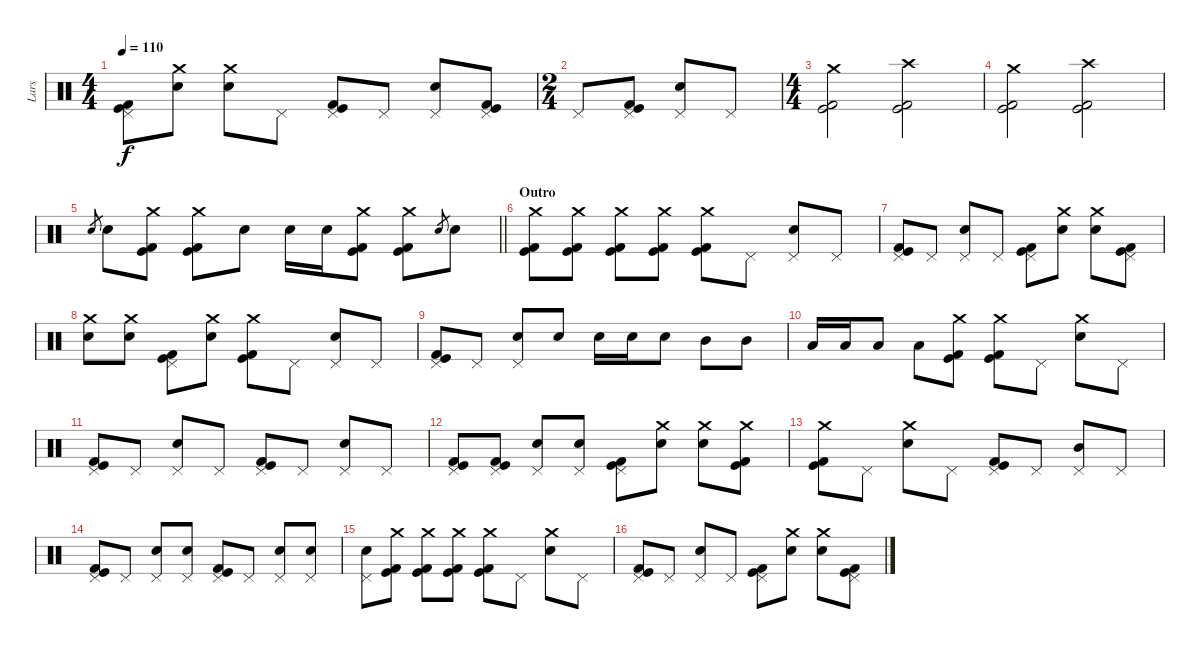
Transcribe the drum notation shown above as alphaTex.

\track ("Lars" "Lars") {instrument percussion}
\staff {score}
\articulation defaults
\ts (4 4)
\tempo 110
\clef neutral
\ks c
("Pedal Hi-Hat (hit)" "Kick (hit)" "Kick (hit) 2").8{dy f} ("Crash medium (hit)" "Electric Snare (hit)").8 ("Crash medium (hit)" "Electric Snare (hit)").8 "Pedal Hi-Hat (hit)".8 ("Pedal Hi-Hat (hit)" "Kick (hit)" "Kick (hit) 2").8 "Pedal Hi-Hat (hit)".8 ("Pedal Hi-Hat (hit)" "Electric Snare (hit)").8 ("Pedal Hi-Hat (hit)" "Kick (hit)" "Kick (hit) 2").8 |
\ts (2 4)
"Pedal Hi-Hat (hit)".8 ("Pedal Hi-Hat (hit)" "Kick (hit)" "Kick (hit) 2").8 ("Pedal Hi-Hat (hit)" "Electric Snare (hit)").8 "Pedal Hi-Hat (hit)".8 |
\ts (4 4)
("Crash medium (hit)" "Kick (hit)" "Kick (hit) 2").2 ("Crash high (hit)" "Kick (hit)" "Kick (hit) 2").2 |
("Crash medium (hit)" "Kick (hit)" "Kick (hit) 2").2 ("Crash high (hit)" "Kick (hit)" "Kick (hit) 2").2 |
\barLineRight lightlight "Electric Snare (hit)".8{gr} "Electric Snare (hit)".8
("Crash medium (hit)" "Kick (hit)" "Kick (hit) 2").8 ("Crash medium (hit)" "Kick (hit)" "Kick (hit) 2").8 "Electric Snare (hit)".8 "Electric Snare (hit)".16 "Electric Snare (hit)".16 ("Crash medium (hit)" "Kick (hit)" "Kick (hit) 2").8 ("Crash medium (hit)" "Kick (hit)" "Kick (hit) 2").8 "Electric Snare (hit)".8{gr} "Electric Snare (hit)".8 |
\section ("" "Outro")
("Crash medium (hit)" "Kick (hit)" "Kick (hit) 2").8 ("Crash medium (hit)" "Kick (hit)" "Kick (hit) 2").8 ("Crash medium (hit)" "Kick (hit)" "Kick (hit) 2").8 ("Crash medium (hit)" "Kick (hit)" "Kick (hit) 2").8 ("Crash medium (hit)" "Kick (hit)" "Kick (hit) 2").8 "Pedal Hi-Hat (hit)".8 ("Pedal Hi-Hat (hit)" "Electric Snare (hit)").8 "Pedal Hi-Hat (hit)".8 |
("Pedal Hi-Hat (hit)" "Kick (hit)" "Kick (hit) 2").8 "Pedal Hi-Hat (hit)".8 ("Pedal Hi-Hat (hit)" "Electric Snare (hit)").8 "Pedal Hi-Hat (hit)".8 ("Pedal Hi-Hat (hit)" "Kick (hit)" "Kick (hit) 2").8 ("Crash medium (hit)" "Electric Snare (hit)").8 ("Crash medium (hit)" "Electric Snare (hit)").8 ("Pedal Hi-Hat (hit)" "Kick (hit)" "Kick (hit) 2").8 |
("Crash medium (hit)" "Electric Snare (hit)").8 ("Crash medium (hit)" "Electric Snare (hit)").8 ("Pedal Hi-Hat (hit)" "Kick (hit)" "Kick (hit) 2").8 ("Crash medium (hit)" "Electric Snare (hit)").8 ("Crash medium (hit)" "Kick (hit)" "Kick (hit) 2").8 "Pedal Hi-Hat (hit)".8 ("Pedal Hi-Hat (hit)" "Electric Snare (hit)").8 "Pedal Hi-Hat (hit)".8 |
("Pedal Hi-Hat (hit)" "Kick (hit)" "Kick (hit) 2").8 "Pedal Hi-Hat (hit)".8 ("Pedal Hi-Hat (hit)" "Electric Snare (hit)").8 "Electric Snare (hit)".8 "Electric Snare (hit)".16 "Electric Snare (hit)".16 "Electric Snare (hit)".8 "Mid Tom (hit)".8 "Mid Tom (hit)".8 |
"Low Tom (hit)".16 "Low Tom (hit)".16 "Low Tom (hit)".8 "Low Tom (hit)".8 ("Crash medium (hit)" "Kick (hit)" "Kick (hit) 2").8 ("Crash medium (hit)" "Kick (hit)" "Kick (hit) 2").8 "Pedal Hi-Hat (hit)".8 ("Crash medium (hit)" "Electric Snare (hit)").8 "Pedal Hi-Hat (hit)".8 |
("Pedal Hi-Hat (hit)" "Kick (hit)" "Kick (hit) 2").8 "Pedal Hi-Hat (hit)".8 ("Pedal Hi-Hat (hit)" "Electric Snare (hit)").8 "Pedal Hi-Hat (hit)".8 ("Pedal Hi-Hat (hit)" "Kick (hit)" "Kick (hit) 2").8 "Pedal Hi-Hat (hit)".8 ("Pedal Hi-Hat (hit)" "Electric Snare (hit)").8 "Pedal Hi-Hat (hit)".8 |
("Pedal Hi-Hat (hit)" "Kick (hit)" "Kick (hit) 2").8 ("Pedal Hi-Hat (hit)" "Kick (hit)" "Kick (hit) 2").8 ("Pedal Hi-Hat (hit)" "Electric Snare (hit)").8 ("Pedal Hi-Hat (hit)" "Electric Snare (hit)").8 ("Pedal Hi-Hat (hit)" "Kick (hit)" "Kick (hit) 2").8 ("Crash medium (hit)" "Electric Snare (hit)").8 ("Crash medium (hit)" "Electric Snare (hit)").8 ("Crash medium (hit)" "Kick (hit)" "Kick (hit) 2").8 |
("Crash medium (hit)" "Kick (hit)" "Kick (hit) 2").8 "Pedal Hi-Hat (hit)".8 ("Crash medium (hit)" "Electric Snare (hit)").8 "Pedal Hi-Hat (hit)".8 ("Pedal Hi-Hat (hit)" "Kick (hit)" "Kick (hit) 2").8 "Pedal Hi-Hat (hit)".8 ("Pedal Hi-Hat (hit)" "Mid Tom (hit)").8 "Pedal Hi-Hat (hit)".8 |
("Pedal Hi-Hat (hit)" "Kick (hit)" "Kick (hit) 2").8 "Pedal Hi-Hat (hit)".8 ("Pedal Hi-Hat (hit)" "Electric Snare (hit)").8 ("Pedal Hi-Hat (hit)" "Electric Snare (hit)").8 ("Pedal Hi-Hat (hit)" "Kick (hit)" "Kick (hit) 2").8 "Pedal Hi-Hat (hit)".8 ("Pedal Hi-Hat (hit)" "Electric Snare (hit)").8 ("Pedal Hi-Hat (hit)" "Electric Snare (hit)").8 |
("Pedal Hi-Hat (hit)" "Electric Snare (hit)").8 ("Crash medium (hit)" "Kick (hit)" "Kick (hit) 2").8 ("Crash medium (hit)" "Kick (hit)" "Kick (hit) 2").8 ("Crash medium (hit)" "Kick (hit)" "Kick (hit) 2").8 ("Crash medium (hit)" "Kick (hit)" "Kick (hit) 2").8 "Pedal Hi-Hat (hit)".8 ("Crash medium (hit)" "Electric Snare (hit)").8 "Pedal Hi-Hat (hit)".8 |
("Pedal Hi-Hat (hit)" "Kick (hit)" "Kick (hit) 2").8 "Pedal Hi-Hat (hit)".8 ("Pedal Hi-Hat (hit)" "Electric Snare (hit)").8 "Pedal Hi-Hat (hit)".8 ("Pedal Hi-Hat (hit)" "Kick (hit)" "Kick (hit) 2").8 ("Crash medium (hit)" "Electric Snare (hit)").8 ("Crash medium (hit)" "Electric Snare (hit)").8 ("Pedal Hi-Hat (hit)" "Kick (hit)" "Kick (hit) 2").8
